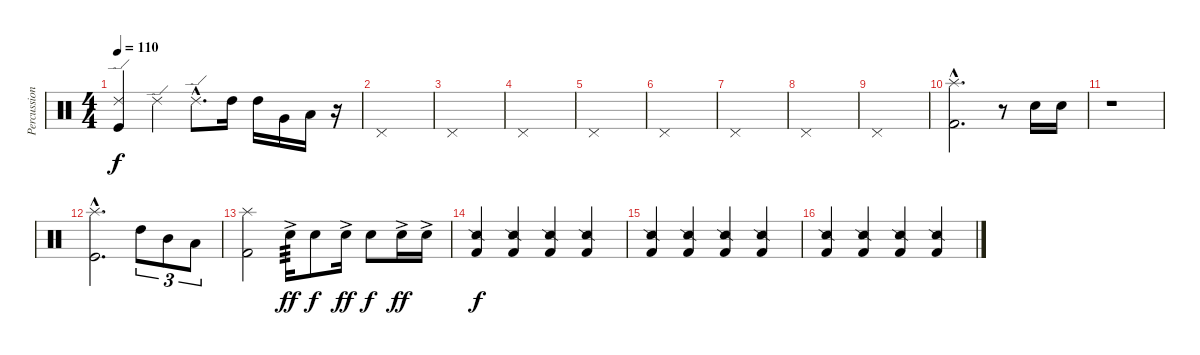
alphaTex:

\track ("Percussion" "Percussion") {instrument percussion}
\staff {score}
\articulation defaults
\ts (4 4)
\tempo 110
\clef neutral
\ks c
("Kick (hit)" "Ride (edge) 2").4{dy f} "Ride (edge) 2".4 "Ride (edge) 2"{hac}.8{d} "High Tom (hit)".16 "High Tom (hit)".16 "Very Low Tom (hit)".16 "Low Floor Tom (hit)".16 r.16 |
"Pedal Hi-Hat (hit)".1 |
"Pedal Hi-Hat (hit)".1 |
"Pedal Hi-Hat (hit)".1 |
"Pedal Hi-Hat (hit)".1 |
"Pedal Hi-Hat (hit)".1 |
"Pedal Hi-Hat (hit)".1 |
"Pedal Hi-Hat (hit)".1 |
"Pedal Hi-Hat (hit)".1 |
("Splash (hit)"{hac} "Kick (hit) 2"{hac}).2{d} r.8 "Electric Snare (hit)".16 "Electric Snare (hit)".16 |
r.1 |
("Splash (hit)"{hac} "Kick (hit)"{hac}).2{d} "High Tom (hit)".8{tu (3 2)} "Mid Tom (hit)".8{tu (3 2)} "Low Floor Tom (hit)".8{tu (3 2)} |
("Splash (hit)" "Kick (hit) 2").2 "Electric Snare (hit)"{ac}.16{tp 3 dy ff} "Electric Snare (hit)".8{dy f} "Electric Snare (hit)"{ac}.16{dy ff} "Electric Snare (hit)".8{dy f} "Electric Snare (hit)"{ac}.16{dy ff} "Electric Snare (hit)"{ac}.16 |
("Snare (side stick) 2" "Kick (hit) 2").4{dy f} ("Snare (side stick) 2" "Kick (hit) 2").4 ("Snare (side stick) 2" "Kick (hit) 2").4 ("Snare (side stick) 2" "Kick (hit) 2").4 |
("Snare (side stick) 2" "Kick (hit) 2").4 ("Snare (side stick) 2" "Kick (hit) 2").4 ("Snare (side stick) 2" "Kick (hit) 2").4 ("Snare (side stick) 2" "Kick (hit) 2").4 |
("Snare (side stick) 2" "Kick (hit) 2").4 ("Snare (side stick) 2" "Kick (hit) 2").4 ("Snare (side stick) 2" "Kick (hit) 2").4 ("Snare (side stick) 2" "Kick (hit) 2").4
